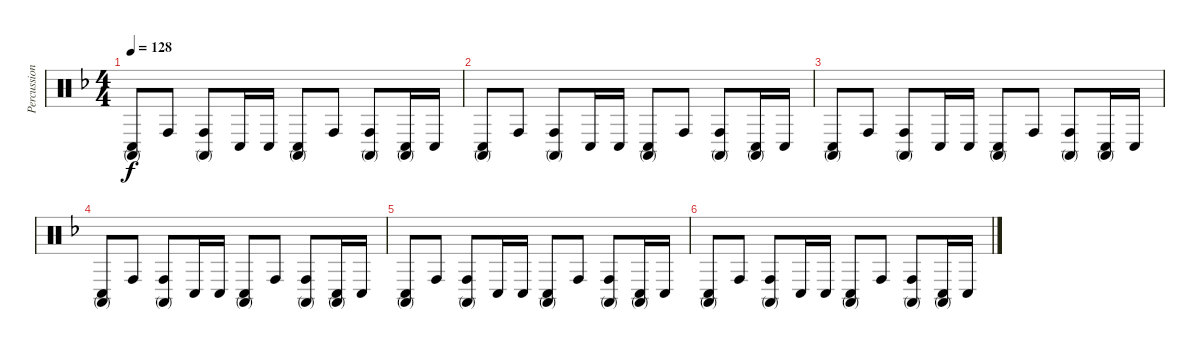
\track ("Percussion" "Percussion") {instrument percussion}
\staff {score}
\articulation defaults
\ts (4 4)
\tempo 128
\clef neutral
\ks f
("Conga high (mute)" "Conga low (hit)").8{dy f} "Conga high (hit)".8 ("Conga high (mute)" "Conga high (hit)").8 "Conga low (hit)".16 "Conga low (hit)".16 ("Conga high (mute)" "Conga low (hit)").8 "Conga high (hit)".8 ("Conga high (mute)" "Conga high (hit)").8 ("Conga high (mute)" "Conga low (hit)").16 "Conga low (hit)".16 |
("Conga high (mute)" "Conga low (hit)").8 "Conga high (hit)".8 ("Conga high (mute)" "Conga high (hit)").8 "Conga low (hit)".16 "Conga low (hit)".16 ("Conga high (mute)" "Conga low (hit)").8 "Conga high (hit)".8 ("Conga high (mute)" "Conga high (hit)").8 ("Conga high (mute)" "Conga low (hit)").16 "Conga low (hit)".16 |
("Conga high (mute)" "Conga low (hit)").8 "Conga high (hit)".8 ("Conga high (mute)" "Conga high (hit)").8 "Conga low (hit)".16 "Conga low (hit)".16 ("Conga high (mute)" "Conga low (hit)").8 "Conga high (hit)".8 ("Conga high (mute)" "Conga high (hit)").8 ("Conga high (mute)" "Conga low (hit)").16 "Conga low (hit)".16 |
("Conga high (mute)" "Conga low (hit)").8 "Conga high (hit)".8 ("Conga high (mute)" "Conga high (hit)").8 "Conga low (hit)".16 "Conga low (hit)".16 ("Conga high (mute)" "Conga low (hit)").8 "Conga high (hit)".8 ("Conga high (mute)" "Conga high (hit)").8 ("Conga high (mute)" "Conga low (hit)").16 "Conga low (hit)".16 |
("Conga high (mute)" "Conga low (hit)").8 "Conga high (hit)".8 ("Conga high (mute)" "Conga high (hit)").8 "Conga low (hit)".16 "Conga low (hit)".16 ("Conga high (mute)" "Conga low (hit)").8 "Conga high (hit)".8 ("Conga high (mute)" "Conga high (hit)").8 ("Conga high (mute)" "Conga low (hit)").16 "Conga low (hit)".16 |
("Conga high (mute)" "Conga low (hit)").8 "Conga high (hit)".8 ("Conga high (mute)" "Conga high (hit)").8 "Conga low (hit)".16 "Conga low (hit)".16 ("Conga high (mute)" "Conga low (hit)").8 "Conga high (hit)".8 ("Conga high (mute)" "Conga high (hit)").8 ("Conga high (mute)" "Conga low (hit)").16 "Conga low (hit)".16
